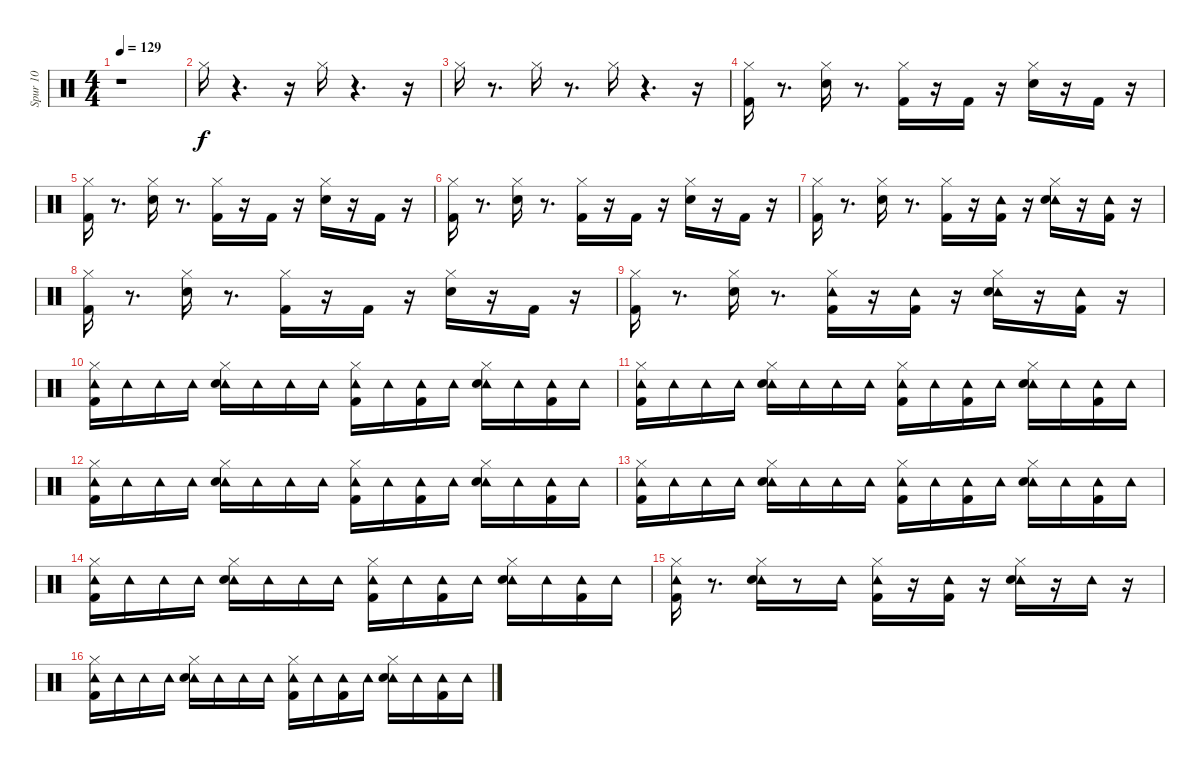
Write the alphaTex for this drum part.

\track ("Spur 10" "Spur 10") {instrument percussion}
\staff {score}
\articulation defaults
\ts (4 4)
\tempo 129
\clef neutral
\ks c
r.1{dy f} |
"Hi-Hat (closed)".16 r.4{d} r.16 "Hi-Hat (closed)".16 r.4{d} r.16 |
"Hi-Hat (closed)".16 r.8{d} "Hi-Hat (closed)".16 r.8{d} "Hi-Hat (closed)".16 r.4{d} r.16 |
("Kick (hit) 2" "Hi-Hat (closed)").16 r.8{d} ("Snare (hit) 2" "Hi-Hat (closed)").16 r.8{d} ("Kick (hit) 2" "Hi-Hat (closed)").16 r.16 "Kick (hit) 2".16 r.16 ("Snare (hit) 2" "Hi-Hat (closed)").16 r.16 "Kick (hit) 2".16 r.16 |
("Kick (hit) 2" "Hi-Hat (closed)").16 r.8{d} ("Snare (hit) 2" "Hi-Hat (closed)").16 r.8{d} ("Kick (hit) 2" "Hi-Hat (closed)").16 r.16 "Kick (hit) 2".16 r.16 ("Snare (hit) 2" "Hi-Hat (closed)").16 r.16 "Kick (hit) 2".16 r.16 |
("Kick (hit) 2" "Hi-Hat (closed)").16 r.8{d} ("Snare (hit) 2" "Hi-Hat (closed)").16 r.8{d} ("Kick (hit) 2" "Hi-Hat (closed)").16 r.16 "Kick (hit) 2".16 r.16 ("Snare (hit) 2" "Hi-Hat (closed)").16 r.16 "Kick (hit) 2".16 r.16 |
("Kick (hit) 2" "Hi-Hat (closed)").16 r.8{d} ("Snare (hit) 2" "Hi-Hat (closed)").16 r.8{d} ("Kick (hit) 2" "Hi-Hat (closed)").16 r.16 ("Tambourine (hit)" "Kick (hit) 2").16 r.16 ("Tambourine (hit)" "Snare (hit) 2" "Hi-Hat (closed)").16 r.16 ("Tambourine (hit)" "Kick (hit) 2").16 r.16 |
("Kick (hit) 2" "Hi-Hat (closed)").16 r.8{d} ("Snare (hit) 2" "Hi-Hat (closed)").16 r.8{d} ("Kick (hit) 2" "Hi-Hat (closed)").16 r.16 "Kick (hit) 2".16 r.16 ("Snare (hit) 2" "Hi-Hat (closed)").16 r.16 "Kick (hit) 2".16 r.16 |
("Hi-Hat (closed)" "Kick (hit) 2").16 r.8{d} ("Hi-Hat (closed)" "Snare (hit) 2").16 r.8{d} ("Tambourine (hit)" "Hi-Hat (closed)" "Kick (hit) 2").16 r.16 ("Tambourine (hit)" "Kick (hit) 2").16 r.16 ("Tambourine (hit)" "Hi-Hat (closed)" "Snare (hit) 2").16 r.16 ("Tambourine (hit)" "Kick (hit) 2").16 r.16 |
("Tambourine (hit)" "Hi-Hat (closed)" "Kick (hit) 2").16 "Tambourine (hit)".16 "Tambourine (hit)".16 "Tambourine (hit)".16 ("Tambourine (hit)" "Hi-Hat (closed)" "Snare (hit) 2").16 "Tambourine (hit)".16 "Tambourine (hit)".16 "Tambourine (hit)".16 ("Tambourine (hit)" "Hi-Hat (closed)" "Kick (hit) 2").16 "Tambourine (hit)".16 ("Tambourine (hit)" "Kick (hit) 2").16 "Tambourine (hit)".16 ("Tambourine (hit)" "Hi-Hat (closed)" "Snare (hit) 2").16 "Tambourine (hit)".16 ("Tambourine (hit)" "Kick (hit) 2").16 "Tambourine (hit)".16 |
("Tambourine (hit)" "Hi-Hat (closed)" "Kick (hit) 2").16 "Tambourine (hit)".16 "Tambourine (hit)".16 "Tambourine (hit)".16 ("Tambourine (hit)" "Hi-Hat (closed)" "Snare (hit) 2").16 "Tambourine (hit)".16 "Tambourine (hit)".16 "Tambourine (hit)".16 ("Tambourine (hit)" "Hi-Hat (closed)" "Kick (hit) 2").16 "Tambourine (hit)".16 ("Tambourine (hit)" "Kick (hit) 2").16 "Tambourine (hit)".16 ("Tambourine (hit)" "Hi-Hat (closed)" "Snare (hit) 2").16 "Tambourine (hit)".16 ("Tambourine (hit)" "Kick (hit) 2").16 "Tambourine (hit)".16 |
("Tambourine (hit)" "Hi-Hat (closed)" "Kick (hit) 2").16 "Tambourine (hit)".16 "Tambourine (hit)".16 "Tambourine (hit)".16 ("Tambourine (hit)" "Hi-Hat (closed)" "Snare (hit) 2").16 "Tambourine (hit)".16 "Tambourine (hit)".16 "Tambourine (hit)".16 ("Tambourine (hit)" "Hi-Hat (closed)" "Kick (hit) 2").16 "Tambourine (hit)".16 ("Tambourine (hit)" "Kick (hit) 2").16 "Tambourine (hit)".16 ("Tambourine (hit)" "Hi-Hat (closed)" "Snare (hit) 2").16 "Tambourine (hit)".16 ("Tambourine (hit)" "Kick (hit) 2").16 "Tambourine (hit)".16 |
("Tambourine (hit)" "Hi-Hat (closed)" "Kick (hit) 2").16 "Tambourine (hit)".16 "Tambourine (hit)".16 "Tambourine (hit)".16 ("Tambourine (hit)" "Hi-Hat (closed)" "Snare (hit) 2").16 "Tambourine (hit)".16 "Tambourine (hit)".16 "Tambourine (hit)".16 ("Tambourine (hit)" "Hi-Hat (closed)" "Kick (hit) 2").16 "Tambourine (hit)".16 ("Tambourine (hit)" "Kick (hit) 2").16 "Tambourine (hit)".16 ("Tambourine (hit)" "Hi-Hat (closed)" "Snare (hit) 2").16 "Tambourine (hit)".16 ("Tambourine (hit)" "Kick (hit) 2").16 "Tambourine (hit)".16 |
("Tambourine (hit)" "Hi-Hat (closed)" "Kick (hit) 2").16 "Tambourine (hit)".16 "Tambourine (hit)".16 "Tambourine (hit)".16 ("Tambourine (hit)" "Hi-Hat (closed)" "Snare (hit) 2").16 "Tambourine (hit)".16 "Tambourine (hit)".16 "Tambourine (hit)".16 ("Tambourine (hit)" "Hi-Hat (closed)" "Kick (hit) 2").16 "Tambourine (hit)".16 ("Tambourine (hit)" "Kick (hit) 2").16 "Tambourine (hit)".16 ("Tambourine (hit)" "Hi-Hat (closed)" "Snare (hit) 2").16 "Tambourine (hit)".16 ("Tambourine (hit)" "Kick (hit) 2").16 "Tambourine (hit)".16 |
("Tambourine (hit)" "Hi-Hat (closed)" "Kick (hit) 2").16 r.8{d} ("Tambourine (hit)" "Hi-Hat (closed)" "Snare (hit) 2").16 r.8 "Tambourine (hit)".16 ("Tambourine (hit)" "Hi-Hat (closed)" "Kick (hit) 2").16 r.16 ("Tambourine (hit)" "Kick (hit) 2").16 r.16 ("Tambourine (hit)" "Hi-Hat (closed)" "Snare (hit) 2").16 r.16 "Tambourine (hit)".16 r.16 |
("Tambourine (hit)" "Hi-Hat (closed)" "Kick (hit) 2").16 "Tambourine (hit)".16 "Tambourine (hit)".16 "Tambourine (hit)".16 ("Tambourine (hit)" "Hi-Hat (closed)" "Snare (hit) 2").16 "Tambourine (hit)".16 "Tambourine (hit)".16 "Tambourine (hit)".16 ("Tambourine (hit)" "Hi-Hat (closed)" "Kick (hit) 2").16 "Tambourine (hit)".16 ("Tambourine (hit)" "Kick (hit) 2").16 "Tambourine (hit)".16 ("Tambourine (hit)" "Hi-Hat (closed)" "Snare (hit) 2").16 "Tambourine (hit)".16 ("Tambourine (hit)" "Kick (hit) 2").16 "Tambourine (hit)".16
